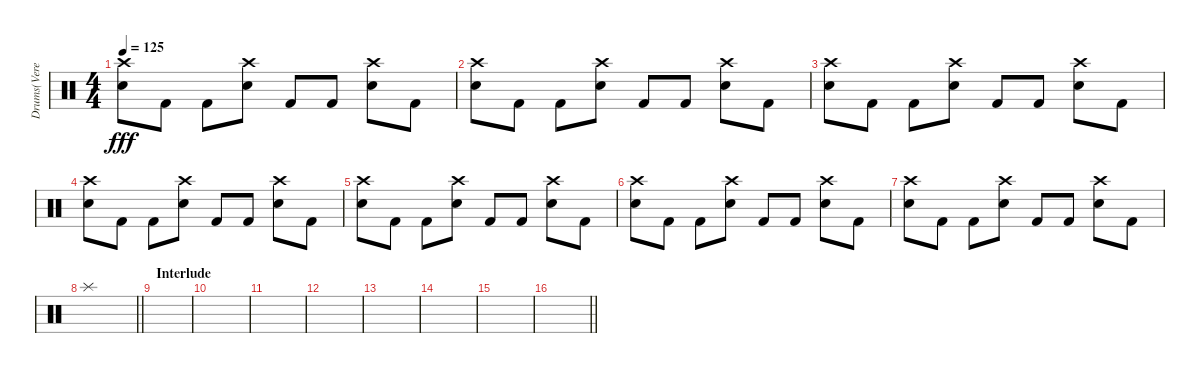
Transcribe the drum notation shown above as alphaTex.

\track ("Drums(Vereinfacht) - Daniel" "Drums(Vere") {instrument percussion}
\staff {score}
\articulation defaults
\ts (4 4)
\tempo 125
\clef neutral
\ks c
("Snare (hit) 2" "Crash high (hit)").8{dy fff} "Kick (hit) 2".8 "Kick (hit) 2".8 ("Snare (hit) 2" "Crash high (hit)").8 "Kick (hit) 2".8 "Kick (hit) 2".8 ("Snare (hit) 2" "Crash high (hit)").8 "Kick (hit) 2".8 |
("Snare (hit) 2" "Crash high (hit)").8 "Kick (hit) 2".8 "Kick (hit) 2".8 ("Snare (hit) 2" "Crash high (hit)").8 "Kick (hit) 2".8 "Kick (hit) 2".8 ("Snare (hit) 2" "Crash high (hit)").8 "Kick (hit) 2".8 |
("Snare (hit) 2" "Crash high (hit)").8 "Kick (hit) 2".8 "Kick (hit) 2".8 ("Snare (hit) 2" "Crash high (hit)").8 "Kick (hit) 2".8 "Kick (hit) 2".8 ("Snare (hit) 2" "Crash high (hit)").8 "Kick (hit) 2".8 |
("Snare (hit) 2" "Crash high (hit)").8 "Kick (hit) 2".8 "Kick (hit) 2".8 ("Snare (hit) 2" "Crash high (hit)").8 "Kick (hit) 2".8 "Kick (hit) 2".8 ("Snare (hit) 2" "Crash high (hit)").8 "Kick (hit) 2".8 |
("Snare (hit) 2" "Crash high (hit)").8 "Kick (hit) 2".8 "Kick (hit) 2".8 ("Snare (hit) 2" "Crash high (hit)").8 "Kick (hit) 2".8 "Kick (hit) 2".8 ("Snare (hit) 2" "Crash high (hit)").8 "Kick (hit) 2".8 |
("Snare (hit) 2" "Crash high (hit)").8 "Kick (hit) 2".8 "Kick (hit) 2".8 ("Snare (hit) 2" "Crash high (hit)").8 "Kick (hit) 2".8 "Kick (hit) 2".8 ("Snare (hit) 2" "Crash high (hit)").8 "Kick (hit) 2".8 |
("Snare (hit) 2" "Crash high (hit)").8 "Kick (hit) 2".8 "Kick (hit) 2".8 ("Snare (hit) 2" "Crash high (hit)").8 "Kick (hit) 2".8 "Kick (hit) 2".8 ("Snare (hit) 2" "Crash high (hit)").8 "Kick (hit) 2".8 |
\barLineRight lightlight "Splash (hit)".1
|
\section ("" "Interlude")
|
|
|
|
|
|
|
\barLineRight lightlight
